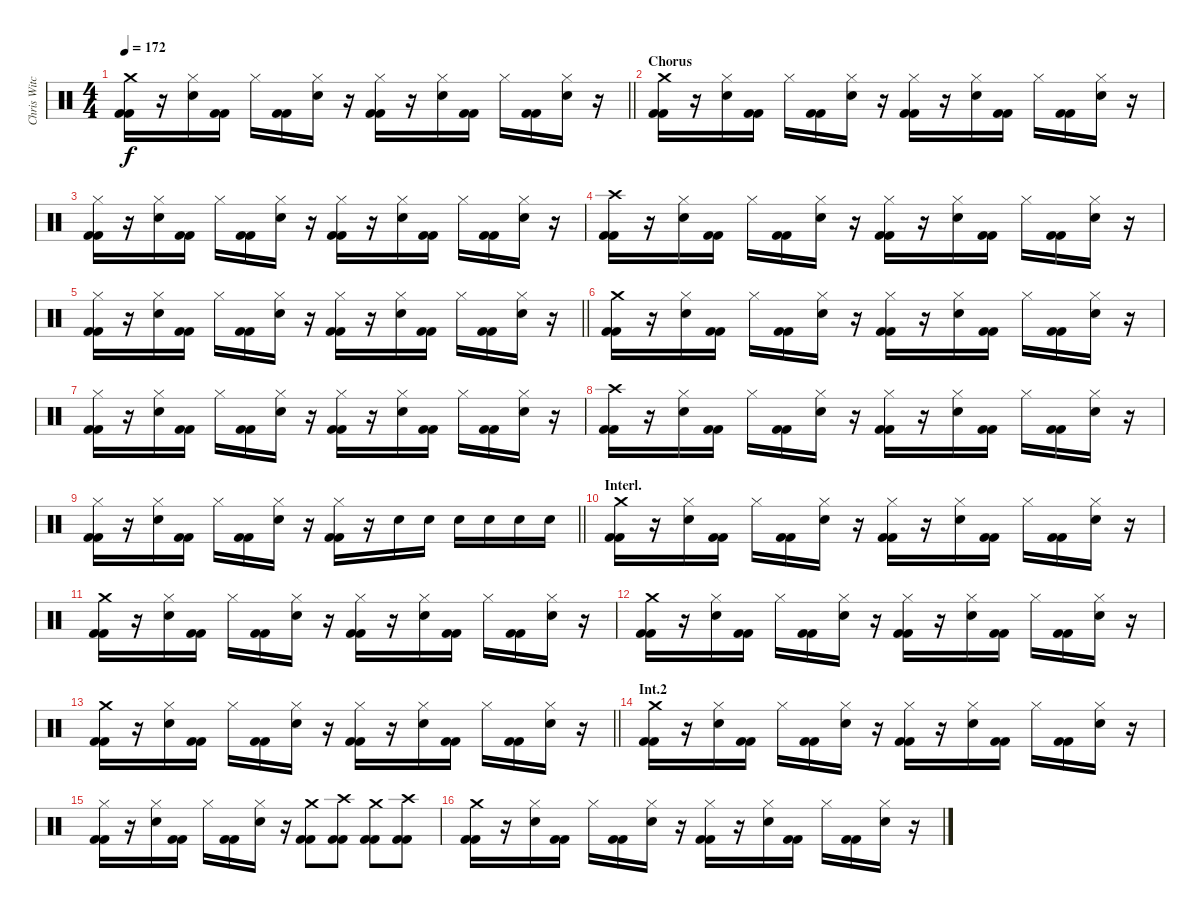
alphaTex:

\track ("Chris Witchhunter" "Chris Witc") {instrument percussion}
\staff {score}
\articulation defaults
\ts (4 4)
\tempo 172
\clef neutral
\barLineRight lightlight
\ks c
("Kick (hit) 2" "Kick (hit) 2" "Crash medium (hit)").16{dy f} r.16 ("Snare (hit) 2" "Hi-Hat (closed)").16 ("Kick (hit) 2" "Kick (hit) 2").16 "Hi-Hat (closed)".16 ("Kick (hit) 2" "Kick (hit) 2").16 ("Snare (hit) 2" "Hi-Hat (closed)").16 r.16 ("Kick (hit) 2" "Kick (hit) 2" "Hi-Hat (closed)").16 r.16 ("Snare (hit) 2" "Hi-Hat (closed)").16 ("Kick (hit) 2" "Kick (hit) 2").16 "Hi-Hat (closed)".16 ("Kick (hit) 2" "Kick (hit) 2").16 ("Snare (hit) 2" "Hi-Hat (closed)").16 r.16 |
\section ("" "Chorus")
("Kick (hit) 2" "Kick (hit) 2" "Crash medium (hit)").16 r.16 ("Snare (hit) 2" "Hi-Hat (closed)").16 ("Kick (hit) 2" "Kick (hit) 2").16 "Hi-Hat (closed)".16 ("Kick (hit) 2" "Kick (hit) 2").16 ("Snare (hit) 2" "Hi-Hat (closed)").16 r.16 ("Kick (hit) 2" "Kick (hit) 2" "Hi-Hat (closed)").16 r.16 ("Snare (hit) 2" "Hi-Hat (closed)").16 ("Kick (hit) 2" "Kick (hit) 2").16 "Hi-Hat (closed)".16 ("Kick (hit) 2" "Kick (hit) 2").16 ("Snare (hit) 2" "Hi-Hat (closed)").16 r.16 |
("Kick (hit) 2" "Kick (hit) 2" "Hi-Hat (closed)").16 r.16 ("Snare (hit) 2" "Hi-Hat (closed)").16 ("Kick (hit) 2" "Kick (hit) 2").16 "Hi-Hat (closed)".16 ("Kick (hit) 2" "Kick (hit) 2").16 ("Snare (hit) 2" "Hi-Hat (closed)").16 r.16 ("Kick (hit) 2" "Kick (hit) 2" "Hi-Hat (closed)").16 r.16 ("Snare (hit) 2" "Hi-Hat (closed)").16 ("Kick (hit) 2" "Kick (hit) 2").16 "Hi-Hat (closed)".16 ("Kick (hit) 2" "Kick (hit) 2").16 ("Snare (hit) 2" "Hi-Hat (closed)").16 r.16 |
("Kick (hit) 2" "Kick (hit) 2" "Crash high (hit)").16 r.16 ("Snare (hit) 2" "Hi-Hat (closed)").16 ("Kick (hit) 2" "Kick (hit) 2").16 "Hi-Hat (closed)".16 ("Kick (hit) 2" "Kick (hit) 2").16 ("Snare (hit) 2" "Hi-Hat (closed)").16 r.16 ("Kick (hit) 2" "Kick (hit) 2" "Hi-Hat (closed)").16 r.16 ("Snare (hit) 2" "Hi-Hat (closed)").16 ("Kick (hit) 2" "Kick (hit) 2").16 "Hi-Hat (closed)".16 ("Kick (hit) 2" "Kick (hit) 2").16 ("Snare (hit) 2" "Hi-Hat (closed)").16 r.16 |
\barLineRight lightlight
("Kick (hit) 2" "Kick (hit) 2" "Hi-Hat (closed)").16 r.16 ("Snare (hit) 2" "Hi-Hat (closed)").16 ("Kick (hit) 2" "Kick (hit) 2").16 "Hi-Hat (closed)".16 ("Kick (hit) 2" "Kick (hit) 2").16 ("Snare (hit) 2" "Hi-Hat (closed)").16 r.16 ("Kick (hit) 2" "Kick (hit) 2" "Hi-Hat (closed)").16 r.16 ("Snare (hit) 2" "Hi-Hat (closed)").16 ("Kick (hit) 2" "Kick (hit) 2").16 "Hi-Hat (closed)".16 ("Kick (hit) 2" "Kick (hit) 2").16 ("Snare (hit) 2" "Hi-Hat (closed)").16 r.16 |
("Kick (hit) 2" "Kick (hit) 2" "Crash medium (hit)").16 r.16 ("Snare (hit) 2" "Hi-Hat (closed)").16 ("Kick (hit) 2" "Kick (hit) 2").16 "Hi-Hat (closed)".16 ("Kick (hit) 2" "Kick (hit) 2").16 ("Snare (hit) 2" "Hi-Hat (closed)").16 r.16 ("Kick (hit) 2" "Kick (hit) 2" "Hi-Hat (closed)").16 r.16 ("Snare (hit) 2" "Hi-Hat (closed)").16 ("Kick (hit) 2" "Kick (hit) 2").16 "Hi-Hat (closed)".16 ("Kick (hit) 2" "Kick (hit) 2").16 ("Snare (hit) 2" "Hi-Hat (closed)").16 r.16 |
("Kick (hit) 2" "Kick (hit) 2" "Hi-Hat (closed)").16 r.16 ("Snare (hit) 2" "Hi-Hat (closed)").16 ("Kick (hit) 2" "Kick (hit) 2").16 "Hi-Hat (closed)".16 ("Kick (hit) 2" "Kick (hit) 2").16 ("Snare (hit) 2" "Hi-Hat (closed)").16 r.16 ("Kick (hit) 2" "Kick (hit) 2" "Hi-Hat (closed)").16 r.16 ("Snare (hit) 2" "Hi-Hat (closed)").16 ("Kick (hit) 2" "Kick (hit) 2").16 "Hi-Hat (closed)".16 ("Kick (hit) 2" "Kick (hit) 2").16 ("Snare (hit) 2" "Hi-Hat (closed)").16 r.16 |
("Kick (hit) 2" "Kick (hit) 2" "Crash high (hit)").16 r.16 ("Snare (hit) 2" "Hi-Hat (closed)").16 ("Kick (hit) 2" "Kick (hit) 2").16 "Hi-Hat (closed)".16 ("Kick (hit) 2" "Kick (hit) 2").16 ("Snare (hit) 2" "Hi-Hat (closed)").16 r.16 ("Kick (hit) 2" "Kick (hit) 2" "Hi-Hat (closed)").16 r.16 ("Snare (hit) 2" "Hi-Hat (closed)").16 ("Kick (hit) 2" "Kick (hit) 2").16 "Hi-Hat (closed)".16 ("Kick (hit) 2" "Kick (hit) 2").16 ("Snare (hit) 2" "Hi-Hat (closed)").16 r.16 |
\barLineRight lightlight
("Kick (hit) 2" "Kick (hit) 2" "Hi-Hat (closed)").16 r.16 ("Snare (hit) 2" "Hi-Hat (closed)").16 ("Kick (hit) 2" "Kick (hit) 2").16 "Hi-Hat (closed)".16 ("Kick (hit) 2" "Kick (hit) 2").16 ("Snare (hit) 2" "Hi-Hat (closed)").16 r.16 ("Kick (hit) 2" "Kick (hit) 2" "Hi-Hat (closed)").16 r.16 "Snare (hit) 2".16 "Snare (hit) 2".16 "Snare (hit) 2".16 "Snare (hit) 2".16 "Snare (hit) 2".16 "Snare (hit) 2".16 |
\section ("" "Interl.")
("Kick (hit) 2" "Kick (hit) 2" "Crash medium (hit)").16 r.16 ("Snare (hit) 2" "Hi-Hat (closed)").16 ("Kick (hit) 2" "Kick (hit) 2").16 "Hi-Hat (closed)".16 ("Kick (hit) 2" "Kick (hit) 2").16 ("Snare (hit) 2" "Hi-Hat (closed)").16 r.16 ("Kick (hit) 2" "Kick (hit) 2" "Hi-Hat (closed)").16 r.16 ("Snare (hit) 2" "Hi-Hat (closed)").16 ("Kick (hit) 2" "Kick (hit) 2").16 "Hi-Hat (closed)".16 ("Kick (hit) 2" "Kick (hit) 2").16 ("Snare (hit) 2" "Hi-Hat (closed)").16 r.16 |
("Kick (hit) 2" "Kick (hit) 2" "Crash medium (hit)").16 r.16 ("Snare (hit) 2" "Hi-Hat (closed)").16 ("Kick (hit) 2" "Kick (hit) 2").16 "Hi-Hat (closed)".16 ("Kick (hit) 2" "Kick (hit) 2").16 ("Snare (hit) 2" "Hi-Hat (closed)").16 r.16 ("Kick (hit) 2" "Kick (hit) 2" "Hi-Hat (closed)").16 r.16 ("Snare (hit) 2" "Hi-Hat (closed)").16 ("Kick (hit) 2" "Kick (hit) 2").16 "Hi-Hat (closed)".16 ("Kick (hit) 2" "Kick (hit) 2").16 ("Snare (hit) 2" "Hi-Hat (closed)").16 r.16 |
("Kick (hit) 2" "Kick (hit) 2" "Crash medium (hit)").16 r.16 ("Snare (hit) 2" "Hi-Hat (closed)").16 ("Kick (hit) 2" "Kick (hit) 2").16 "Hi-Hat (closed)".16 ("Kick (hit) 2" "Kick (hit) 2").16 ("Snare (hit) 2" "Hi-Hat (closed)").16 r.16 ("Kick (hit) 2" "Kick (hit) 2" "Hi-Hat (closed)").16 r.16 ("Snare (hit) 2" "Hi-Hat (closed)").16 ("Kick (hit) 2" "Kick (hit) 2").16 "Hi-Hat (closed)".16 ("Kick (hit) 2" "Kick (hit) 2").16 ("Snare (hit) 2" "Hi-Hat (closed)").16 r.16 |
\barLineRight lightlight
("Kick (hit) 2" "Kick (hit) 2" "Crash medium (hit)").16 r.16 ("Snare (hit) 2" "Hi-Hat (closed)").16 ("Kick (hit) 2" "Kick (hit) 2").16 "Hi-Hat (closed)".16 ("Kick (hit) 2" "Kick (hit) 2").16 ("Snare (hit) 2" "Hi-Hat (closed)").16 r.16 ("Kick (hit) 2" "Kick (hit) 2" "Hi-Hat (closed)").16 r.16 ("Snare (hit) 2" "Hi-Hat (closed)").16 ("Kick (hit) 2" "Kick (hit) 2").16 "Hi-Hat (closed)".16 ("Kick (hit) 2" "Kick (hit) 2").16 ("Snare (hit) 2" "Hi-Hat (closed)").16 r.16 |
\section ("" "Int.2")
("Kick (hit) 2" "Kick (hit) 2" "Crash medium (hit)").16 r.16 ("Snare (hit) 2" "Hi-Hat (closed)").16 ("Kick (hit) 2" "Kick (hit) 2").16 "Hi-Hat (closed)".16 ("Kick (hit) 2" "Kick (hit) 2").16 ("Snare (hit) 2" "Hi-Hat (closed)").16 r.16 ("Kick (hit) 2" "Kick (hit) 2" "Hi-Hat (closed)").16 r.16 ("Snare (hit) 2" "Hi-Hat (closed)").16 ("Kick (hit) 2" "Kick (hit) 2").16 "Hi-Hat (closed)".16 ("Kick (hit) 2" "Kick (hit) 2").16 ("Snare (hit) 2" "Hi-Hat (closed)").16 r.16 |
("Kick (hit) 2" "Kick (hit) 2" "Hi-Hat (closed)").16 r.16 ("Snare (hit) 2" "Hi-Hat (closed)").16 ("Kick (hit) 2" "Kick (hit) 2").16 "Hi-Hat (closed)".16 ("Kick (hit) 2" "Kick (hit) 2").16 ("Snare (hit) 2" "Hi-Hat (closed)").16 r.16 ("Kick (hit) 2" "Kick (hit) 2" "Crash medium (hit)").8 ("Kick (hit) 2" "Kick (hit) 2" "Crash high (hit)").8 ("Kick (hit) 2" "Kick (hit) 2" "Crash medium (hit)").8 ("Kick (hit) 2" "Kick (hit) 2" "Crash high (hit)").8 |
("Kick (hit) 2" "Kick (hit) 2" "Crash medium (hit)").16 r.16 ("Snare (hit) 2" "Hi-Hat (closed)").16 ("Kick (hit) 2" "Kick (hit) 2").16 "Hi-Hat (closed)".16 ("Kick (hit) 2" "Kick (hit) 2").16 ("Snare (hit) 2" "Hi-Hat (closed)").16 r.16 ("Kick (hit) 2" "Kick (hit) 2" "Hi-Hat (closed)").16 r.16 ("Snare (hit) 2" "Hi-Hat (closed)").16 ("Kick (hit) 2" "Kick (hit) 2").16 "Hi-Hat (closed)".16 ("Kick (hit) 2" "Kick (hit) 2").16 ("Snare (hit) 2" "Hi-Hat (closed)").16 r.16
